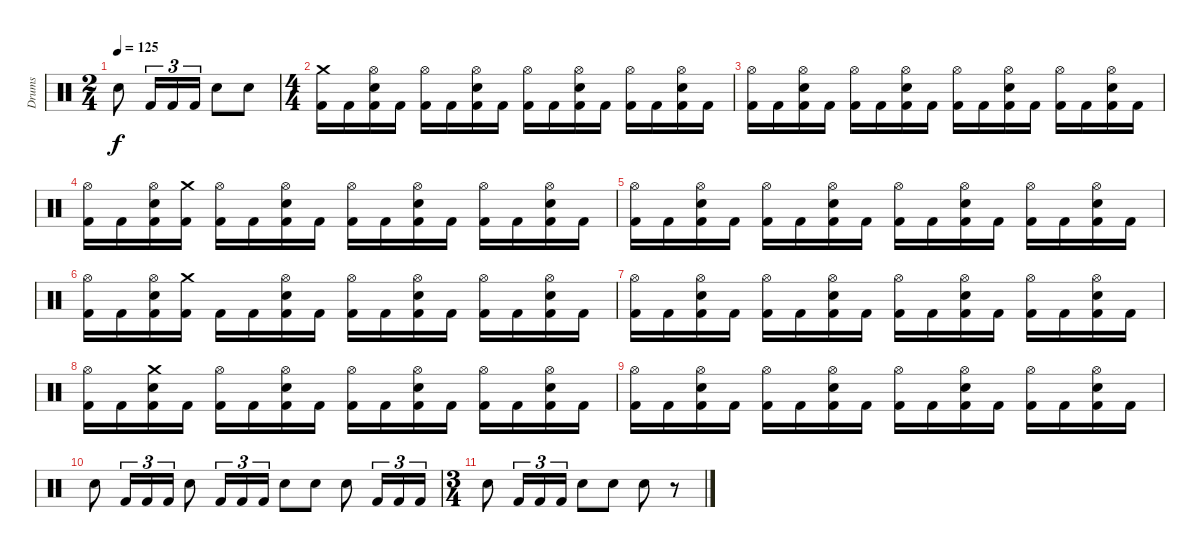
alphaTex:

\track ("Drums" "Drums") {instrument percussion}
\staff {score}
\articulation defaults
\ts (2 4)
\tempo 125
\clef neutral
\ks c "Electric Snare (hit)".8{dy f} "Kick (hit) 2".16{tu (3 2)} "Kick (hit) 2".16{tu (3 2)} "Kick (hit) 2".16{tu (3 2)} "Electric Snare (hit)".8 "Electric Snare (hit)".8
|
\ts (4 4)
("Crash medium (hit)" "Kick (hit) 2").16 "Kick (hit) 2".16 ("Hi-Hat (open)" "Electric Snare (hit)" "Kick (hit) 2").16 "Kick (hit) 2".16 ("Hi-Hat (open)" "Kick (hit) 2").16 "Kick (hit) 2".16 ("Hi-Hat (open)" "Electric Snare (hit)" "Kick (hit) 2").16 "Kick (hit) 2".16 ("Hi-Hat (open)" "Kick (hit) 2").16 "Kick (hit) 2".16 ("Hi-Hat (open)" "Electric Snare (hit)" "Kick (hit) 2").16 "Kick (hit) 2".16 ("Hi-Hat (open)" "Kick (hit) 2").16 "Kick (hit) 2".16 ("Hi-Hat (open)" "Electric Snare (hit)" "Kick (hit) 2").16 "Kick (hit) 2".16 |
("Hi-Hat (open)" "Kick (hit) 2").16 "Kick (hit) 2".16 ("Hi-Hat (open)" "Electric Snare (hit)" "Kick (hit) 2").16 "Kick (hit) 2".16 ("Hi-Hat (open)" "Kick (hit) 2").16 "Kick (hit) 2".16 ("Hi-Hat (open)" "Electric Snare (hit)" "Kick (hit) 2").16 "Kick (hit) 2".16 ("Hi-Hat (open)" "Kick (hit) 2").16 "Kick (hit) 2".16 ("Hi-Hat (open)" "Electric Snare (hit)" "Kick (hit) 2").16 "Kick (hit) 2".16 ("Hi-Hat (open)" "Kick (hit) 2").16 "Kick (hit) 2".16 ("Hi-Hat (open)" "Electric Snare (hit)" "Kick (hit) 2").16 "Kick (hit) 2".16 |
("Hi-Hat (open)" "Kick (hit) 2").16 "Kick (hit) 2".16 ("Hi-Hat (open)" "Electric Snare (hit)" "Kick (hit) 2").16 ("Crash medium (hit)" "Kick (hit) 2").16 ("Hi-Hat (open)" "Kick (hit) 2").16 "Kick (hit) 2".16 ("Hi-Hat (open)" "Electric Snare (hit)" "Kick (hit) 2").16 "Kick (hit) 2".16 ("Hi-Hat (open)" "Kick (hit) 2").16 "Kick (hit) 2".16 ("Hi-Hat (open)" "Electric Snare (hit)" "Kick (hit) 2").16 "Kick (hit) 2".16 ("Hi-Hat (open)" "Kick (hit) 2").16 "Kick (hit) 2".16 ("Hi-Hat (open)" "Electric Snare (hit)" "Kick (hit) 2").16 "Kick (hit) 2".16 |
("Hi-Hat (open)" "Kick (hit) 2").16 "Kick (hit) 2".16 ("Hi-Hat (open)" "Electric Snare (hit)" "Kick (hit) 2").16 "Kick (hit) 2".16 ("Hi-Hat (open)" "Kick (hit) 2").16 "Kick (hit) 2".16 ("Hi-Hat (open)" "Electric Snare (hit)" "Kick (hit) 2").16 "Kick (hit) 2".16 ("Hi-Hat (open)" "Kick (hit) 2").16 "Kick (hit) 2".16 ("Hi-Hat (open)" "Electric Snare (hit)" "Kick (hit) 2").16 "Kick (hit) 2".16 ("Hi-Hat (open)" "Kick (hit) 2").16 "Kick (hit) 2".16 ("Hi-Hat (open)" "Electric Snare (hit)" "Kick (hit) 2").16 "Kick (hit) 2".16 |
("Hi-Hat (open)" "Kick (hit) 2").16 "Kick (hit) 2".16 ("Hi-Hat (open)" "Electric Snare (hit)" "Kick (hit) 2").16 ("Crash medium (hit)" "Kick (hit) 2").16 "Kick (hit) 2".16 "Kick (hit) 2".16 ("Hi-Hat (open)" "Electric Snare (hit)" "Kick (hit) 2").16 "Kick (hit) 2".16 ("Hi-Hat (open)" "Kick (hit) 2").16 "Kick (hit) 2".16 ("Hi-Hat (open)" "Electric Snare (hit)" "Kick (hit) 2").16 "Kick (hit) 2".16 ("Hi-Hat (open)" "Kick (hit) 2").16 "Kick (hit) 2".16 ("Hi-Hat (open)" "Electric Snare (hit)" "Kick (hit) 2").16 "Kick (hit) 2".16 |
("Hi-Hat (open)" "Kick (hit) 2").16 "Kick (hit) 2".16 ("Hi-Hat (open)" "Electric Snare (hit)" "Kick (hit) 2").16 "Kick (hit) 2".16 ("Hi-Hat (open)" "Kick (hit) 2").16 "Kick (hit) 2".16 ("Hi-Hat (open)" "Electric Snare (hit)" "Kick (hit) 2").16 "Kick (hit) 2".16 ("Hi-Hat (open)" "Kick (hit) 2").16 "Kick (hit) 2".16 ("Hi-Hat (open)" "Electric Snare (hit)" "Kick (hit) 2").16 "Kick (hit) 2".16 ("Hi-Hat (open)" "Kick (hit) 2").16 "Kick (hit) 2".16 ("Hi-Hat (open)" "Electric Snare (hit)" "Kick (hit) 2").16 "Kick (hit) 2".16 |
("Hi-Hat (open)" "Kick (hit) 2").16 "Kick (hit) 2".16 ("Crash medium (hit)" "Electric Snare (hit)" "Kick (hit) 2").16 "Kick (hit) 2".16 ("Hi-Hat (open)" "Kick (hit) 2").16 "Kick (hit) 2".16 ("Hi-Hat (open)" "Electric Snare (hit)" "Kick (hit) 2").16 "Kick (hit) 2".16 ("Hi-Hat (open)" "Kick (hit) 2").16 "Kick (hit) 2".16 ("Hi-Hat (open)" "Electric Snare (hit)" "Kick (hit) 2").16 "Kick (hit) 2".16 ("Hi-Hat (open)" "Kick (hit) 2").16 "Kick (hit) 2".16 ("Hi-Hat (open)" "Electric Snare (hit)" "Kick (hit) 2").16 "Kick (hit) 2".16 |
("Hi-Hat (open)" "Kick (hit) 2").16 "Kick (hit) 2".16 ("Hi-Hat (open)" "Electric Snare (hit)" "Kick (hit) 2").16 "Kick (hit) 2".16 ("Hi-Hat (open)" "Kick (hit) 2").16 "Kick (hit) 2".16 ("Hi-Hat (open)" "Electric Snare (hit)" "Kick (hit) 2").16 "Kick (hit) 2".16 ("Hi-Hat (open)" "Kick (hit) 2").16 "Kick (hit) 2".16 ("Hi-Hat (open)" "Electric Snare (hit)" "Kick (hit) 2").16 "Kick (hit) 2".16 ("Hi-Hat (open)" "Kick (hit) 2").16 "Kick (hit) 2".16 ("Hi-Hat (open)" "Electric Snare (hit)" "Kick (hit) 2").16 "Kick (hit) 2".16 |
"Electric Snare (hit)".8 "Kick (hit) 2".16{tu (3 2)} "Kick (hit) 2".16{tu (3 2)} "Kick (hit) 2".16{tu (3 2)} "Electric Snare (hit)".8 "Kick (hit) 2".16{tu (3 2)} "Kick (hit) 2".16{tu (3 2)} "Kick (hit) 2".16{tu (3 2)} "Electric Snare (hit)".8 "Electric Snare (hit)".8 "Electric Snare (hit)".8 "Kick (hit) 2".16{tu (3 2)} "Kick (hit) 2".16{tu (3 2)} "Kick (hit) 2".16{tu (3 2)} |
\ts (3 4)
"Electric Snare (hit)".8 "Kick (hit) 2".16{tu (3 2)} "Kick (hit) 2".16{tu (3 2)} "Kick (hit) 2".16{tu (3 2)} "Electric Snare (hit)".8 "Electric Snare (hit)".8 "Electric Snare (hit)".8 r.8
